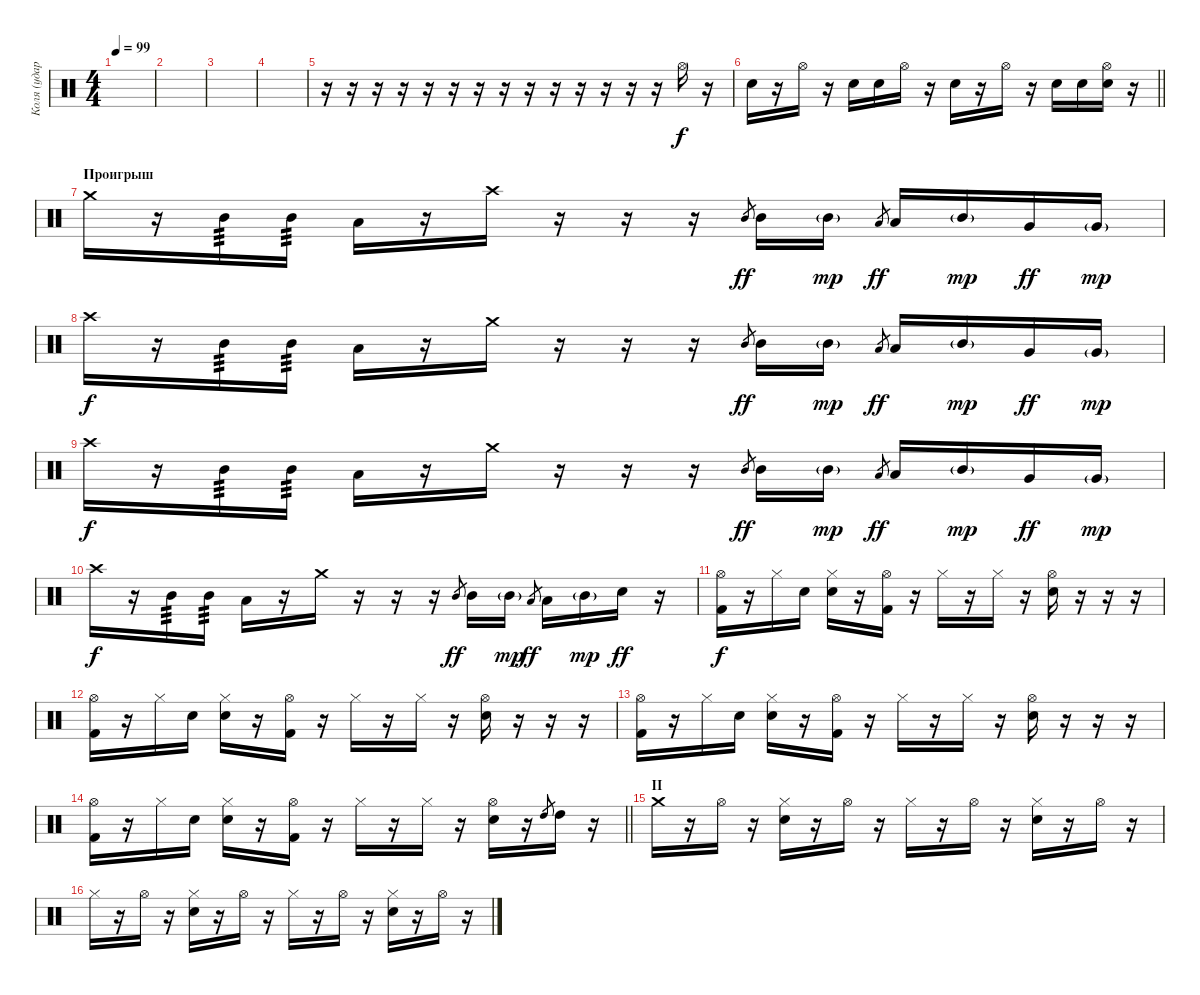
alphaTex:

\track ("Коля (ударные)" "Коля (удар") {instrument percussion}
\staff {score}
\articulation defaults
\ts (4 4)
\tempo 99
\clef neutral
\ks c
|
|
|
|
r.16 r.16 r.16 r.16 r.16 r.16 r.16 r.16 r.16 r.16 r.16 r.16 r.16 r.16 "Hi-Hat (open)".16 r.16 |
\barLineRight lightlight "Electric Snare (hit)".16
r.16 "Hi-Hat (open)".16 r.16 "Electric Snare (hit)".16 "Electric Snare (hit)".16 "Hi-Hat (open)".16 r.16 "Electric Snare (hit)".16 r.16 "Hi-Hat (open)".16 r.16 "Electric Snare (hit)".16 "Electric Snare (hit)".16 ("Snare (hit) 2" "Hi-Hat (open)").16 r.16 |
\section ("" "Проигрыш")
"Crash medium (hit)".16 r.16 "Mid Tom (hit)".16{tp 3} "Mid Tom (hit)".16{tp 3} "Low Tom (hit)".16 r.16 "Crash high (hit)".16 r.16 r.16 r.16 "Mid Tom (hit)".8{gr dy ff} "Mid Tom (hit)".16 "Mid Tom (hit)"{g}.16{dy mp} "Low Tom (hit)".8{gr dy ff} "Low Tom (hit)".16 "Mid Tom (hit)"{g}.16{dy mp} "Very Low Tom (hit)".16{dy ff} "Very Low Tom (hit)"{g}.16{dy mp} |
"Crash high (hit)".16{dy f} r.16 "Mid Tom (hit)".16{tp 3} "Mid Tom (hit)".16{tp 3} "Low Tom (hit)".16 r.16 "Crash medium (hit)".16 r.16 r.16 r.16 "Mid Tom (hit)".8{gr dy ff} "Mid Tom (hit)".16 "Mid Tom (hit)"{g}.16{dy mp} "Low Tom (hit)".8{gr dy ff} "Low Tom (hit)".16 "Mid Tom (hit)"{g}.16{dy mp} "Very Low Tom (hit)".16{dy ff} "Very Low Tom (hit)"{g}.16{dy mp} |
"Crash high (hit)".16{dy f} r.16 "Mid Tom (hit)".16{tp 3} "Mid Tom (hit)".16{tp 3} "Low Tom (hit)".16 r.16 "Crash medium (hit)".16 r.16 r.16 r.16 "Mid Tom (hit)".8{gr dy ff} "Mid Tom (hit)".16 "Mid Tom (hit)"{g}.16{dy mp} "Low Tom (hit)".8{gr dy ff} "Low Tom (hit)".16 "Mid Tom (hit)"{g}.16{dy mp} "Very Low Tom (hit)".16{dy ff} "Very Low Tom (hit)"{g}.16{dy mp} |
"Crash high (hit)".16{dy f} r.16 "Mid Tom (hit)".16{tp 3} "Mid Tom (hit)".16{tp 3} "Low Tom (hit)".16 r.16 "Crash medium (hit)".16 r.16 r.16 r.16 "Mid Tom (hit)".8{gr dy ff} "Mid Tom (hit)".16 "Mid Tom (hit)"{g}.16{dy mp} "Low Tom (hit)".8{gr dy ff} "Low Tom (hit)".16 "Mid Tom (hit)"{g}.16{dy mp} "Electric Snare (hit)".16{dy ff} r.16 |
("Kick (hit) 2" "Hi-Hat (open)").16{dy f} r.16 "Hi-Hat (closed)".16 "Electric Snare (hit)".16 ("Electric Snare (hit)" "Hi-Hat (closed)").16 r.16 ("Kick (hit) 2" "Hi-Hat (open)").16 r.16 "Hi-Hat (closed)".16 r.16 "Hi-Hat (closed)".16 r.16 ("Electric Snare (hit)" "Hi-Hat (open)").16 r.16 r.16 r.16 |
("Kick (hit) 2" "Hi-Hat (open)").16 r.16 "Hi-Hat (closed)".16 "Electric Snare (hit)".16 ("Electric Snare (hit)" "Hi-Hat (closed)").16 r.16 ("Kick (hit) 2" "Hi-Hat (open)").16 r.16 "Hi-Hat (closed)".16 r.16 "Hi-Hat (closed)".16 r.16 ("Electric Snare (hit)" "Hi-Hat (open)").16 r.16 r.16 r.16 |
("Kick (hit) 2" "Hi-Hat (open)").16 r.16 "Hi-Hat (closed)".16 "Electric Snare (hit)".16 ("Electric Snare (hit)" "Hi-Hat (closed)").16 r.16 ("Kick (hit) 2" "Hi-Hat (open)").16 r.16 "Hi-Hat (closed)".16 r.16 "Hi-Hat (closed)".16 r.16 ("Electric Snare (hit)" "Hi-Hat (open)").16 r.16 r.16 r.16 |
\barLineRight lightlight
("Kick (hit) 2" "Hi-Hat (open)").16 r.16 "Hi-Hat (closed)".16 "Electric Snare (hit)".16 ("Electric Snare (hit)" "Hi-Hat (closed)").16 r.16 ("Kick (hit) 2" "Hi-Hat (open)").16 r.16 "Hi-Hat (closed)".16 r.16 "Hi-Hat (closed)".16 r.16 ("Electric Snare (hit)" "Hi-Hat (open)").16 r.16 "High Tom (hit)".8{gr} "High Tom (hit)".16 r.16 |
\section ("" "II")
"Crash medium (hit)".16 r.16 "Hi-Hat (open)".16 r.16 ("Electric Snare (hit)" "Hi-Hat (closed)").16 r.16 "Hi-Hat (open)".16 r.16 "Hi-Hat (closed)".16 r.16 "Hi-Hat (open)".16 r.16 ("Electric Snare (hit)" "Hi-Hat (closed)").16 r.16 "Hi-Hat (open)".16 r.16 |
"Hi-Hat (closed)".16 r.16 "Hi-Hat (open)".16 r.16 ("Electric Snare (hit)" "Hi-Hat (closed)").16 r.16 "Hi-Hat (open)".16 r.16 "Hi-Hat (closed)".16 r.16 "Hi-Hat (open)".16 r.16 ("Electric Snare (hit)" "Hi-Hat (closed)").16 r.16 "Hi-Hat (open)".16 r.16
